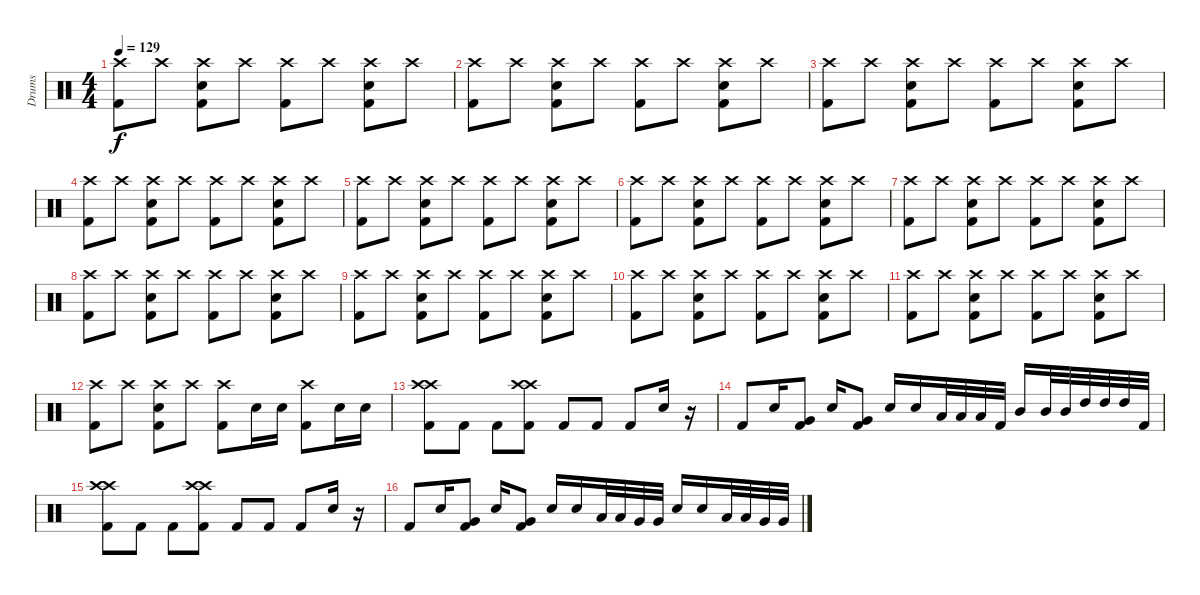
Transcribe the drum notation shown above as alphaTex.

\track ("Drums" "Drums") {instrument percussion}
\staff {score}
\articulation defaults
\ts (4 4)
\tempo 129
\clef neutral
\ks c
("Crash high (hit)" "Kick (hit) 2").8{dy f} "Crash high (hit)".8 ("Crash high (hit)" "Snare (hit) 2" "Kick (hit) 2").8 "Crash high (hit)".8 ("Crash high (hit)" "Kick (hit) 2").8 "Crash high (hit)".8 ("Crash high (hit)" "Snare (hit) 2" "Kick (hit) 2").8 "Crash high (hit)".8 |
("Crash high (hit)" "Kick (hit) 2").8 "Crash high (hit)".8 ("Crash high (hit)" "Snare (hit) 2" "Kick (hit) 2").8 "Crash high (hit)".8 ("Crash high (hit)" "Kick (hit) 2").8 "Crash high (hit)".8 ("Crash high (hit)" "Snare (hit) 2" "Kick (hit) 2").8 "Crash high (hit)".8 |
("Crash high (hit)" "Kick (hit) 2").8 "Crash high (hit)".8 ("Crash high (hit)" "Snare (hit) 2" "Kick (hit) 2").8 "Crash high (hit)".8 ("Crash high (hit)" "Kick (hit) 2").8 "Crash high (hit)".8 ("Crash high (hit)" "Snare (hit) 2" "Kick (hit) 2").8 "Crash high (hit)".8 |
("Crash high (hit)" "Kick (hit) 2").8 "Crash high (hit)".8 ("Crash high (hit)" "Snare (hit) 2" "Kick (hit) 2").8 "Crash high (hit)".8 ("Crash high (hit)" "Kick (hit) 2").8 "Crash high (hit)".8 ("Crash high (hit)" "Snare (hit) 2" "Kick (hit) 2").8 "Crash high (hit)".8 |
("Crash high (hit)" "Kick (hit) 2").8 "Crash high (hit)".8 ("Crash high (hit)" "Snare (hit) 2" "Kick (hit) 2").8 "Crash high (hit)".8 ("Crash high (hit)" "Kick (hit) 2").8 "Crash high (hit)".8 ("Crash high (hit)" "Snare (hit) 2" "Kick (hit) 2").8 "Crash high (hit)".8 |
("Crash high (hit)" "Kick (hit) 2").8 "Crash high (hit)".8 ("Crash high (hit)" "Snare (hit) 2" "Kick (hit) 2").8 "Crash high (hit)".8 ("Crash high (hit)" "Kick (hit) 2").8 "Crash high (hit)".8 ("Crash high (hit)" "Snare (hit) 2" "Kick (hit) 2").8 "Crash high (hit)".8 |
("Crash high (hit)" "Kick (hit) 2").8 "Crash high (hit)".8 ("Crash high (hit)" "Snare (hit) 2" "Kick (hit) 2").8 "Crash high (hit)".8 ("Crash high (hit)" "Kick (hit) 2").8 "Crash high (hit)".8 ("Crash high (hit)" "Snare (hit) 2" "Kick (hit) 2").8 "Crash high (hit)".8 |
("Crash high (hit)" "Kick (hit) 2").8 "Crash high (hit)".8 ("Crash high (hit)" "Snare (hit) 2" "Kick (hit) 2").8 "Crash high (hit)".8 ("Crash high (hit)" "Kick (hit) 2").8 "Crash high (hit)".8 ("Crash high (hit)" "Snare (hit) 2" "Kick (hit) 2").8 "Crash high (hit)".8 |
("Crash high (hit)" "Kick (hit) 2").8 "Crash high (hit)".8 ("Crash high (hit)" "Snare (hit) 2" "Kick (hit) 2").8 "Crash high (hit)".8 ("Crash high (hit)" "Kick (hit) 2").8 "Crash high (hit)".8 ("Crash high (hit)" "Snare (hit) 2" "Kick (hit) 2").8 "Crash high (hit)".8 |
("Crash high (hit)" "Kick (hit) 2").8 "Crash high (hit)".8 ("Crash high (hit)" "Snare (hit) 2" "Kick (hit) 2").8 "Crash high (hit)".8 ("Crash high (hit)" "Kick (hit) 2").8 "Crash high (hit)".8 ("Crash high (hit)" "Snare (hit) 2" "Kick (hit) 2").8 "Crash high (hit)".8 |
("Crash high (hit)" "Kick (hit) 2").8 "Crash high (hit)".8 ("Crash high (hit)" "Snare (hit) 2" "Kick (hit) 2").8 "Crash high (hit)".8 ("Crash high (hit)" "Kick (hit) 2").8 "Crash high (hit)".8 ("Crash high (hit)" "Snare (hit) 2" "Kick (hit) 2").8 "Crash high (hit)".8 |
("Crash high (hit)" "Kick (hit) 2").8 "Crash high (hit)".8 ("Crash high (hit)" "Snare (hit) 2" "Kick (hit) 2").8 "Crash high (hit)".8 ("Crash high (hit)" "Kick (hit) 2").8 "Snare (hit) 2".16 "Snare (hit) 2".16 ("Crash high (hit)" "Kick (hit) 2").8 "Snare (hit) 2".16 "Snare (hit) 2".16 |
("Crash high (hit)" "Crash high (hit)" "Kick (hit) 2").8 "Kick (hit) 2".8 "Kick (hit) 2".8 ("Crash high (hit)" "Crash high (hit)" "Kick (hit) 2").8 "Kick (hit) 2".8 "Kick (hit) 2".8 "Kick (hit) 2".8 "Snare (hit) 2".16 r.16 |
"Kick (hit) 2".8 "Snare (hit) 2".16 ("Very Low Tom (hit)" "Kick (hit) 2").8 "Snare (hit) 2".16 ("Very Low Tom (hit)" "Kick (hit) 2").8 "Snare (hit) 2".16 "Snare (hit) 2".16 "Low Tom (hit)".32 "Low Tom (hit)".32 "Low Tom (hit)".32 "Kick (hit) 2".32 "Mid Tom (hit)".16 "Mid Tom (hit)".32 "Mid Tom (hit)".32 "High Tom (hit)".32 "High Tom (hit)".32 "High Tom (hit)".32 "Kick (hit) 2".32 |
("Crash high (hit)" "Crash high (hit)" "Kick (hit) 2").8 "Kick (hit) 2".8 "Kick (hit) 2".8 ("Crash high (hit)" "Crash high (hit)" "Kick (hit) 2").8 "Kick (hit) 2".8 "Kick (hit) 2".8 "Kick (hit) 2".8 "Snare (hit) 2".16 r.16 |
"Kick (hit) 2".8 "Snare (hit) 2".16 ("Very Low Tom (hit)" "Kick (hit) 2").8 "Snare (hit) 2".16 ("Very Low Tom (hit)" "Kick (hit) 2").8 "Snare (hit) 2".16 "Snare (hit) 2".16 "Low Tom (hit)".32 "Low Tom (hit)".32 "Very Low Tom (hit)".32 "Very Low Tom (hit)".32 "Snare (hit) 2".16 "Snare (hit) 2".16 "Low Tom (hit)".32 "Low Tom (hit)".32 "Very Low Tom (hit)".32 "Very Low Tom (hit)".32
